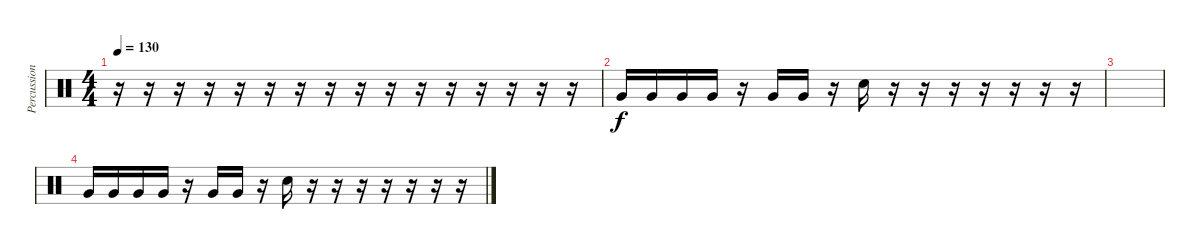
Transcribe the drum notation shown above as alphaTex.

\track ("Percussion" "Percussion") {instrument percussion}
\staff {score}
\articulation defaults
\ts (4 4)
\tempo 130
\clef neutral
\ks c
r.16{dy f} r.16 r.16 r.16 r.16 r.16 r.16 r.16 r.16 r.16 r.16 r.16 r.16 r.16 r.16 r.16 |
"Very Low Tom (hit)".16 "Very Low Tom (hit)".16 "Very Low Tom (hit)".16 "Very Low Tom (hit)".16 r.16 "Very Low Tom (hit)".16 "Very Low Tom (hit)".16 r.16 "Electric Snare (hit)".16 r.16 r.16 r.16 r.16 r.16 r.16 r.16 |
|
"Very Low Tom (hit)".16 "Very Low Tom (hit)".16 "Very Low Tom (hit)".16 "Very Low Tom (hit)".16 r.16 "Very Low Tom (hit)".16 "Very Low Tom (hit)".16 r.16 "Electric Snare (hit)".16 r.16 r.16 r.16 r.16 r.16 r.16 r.16
